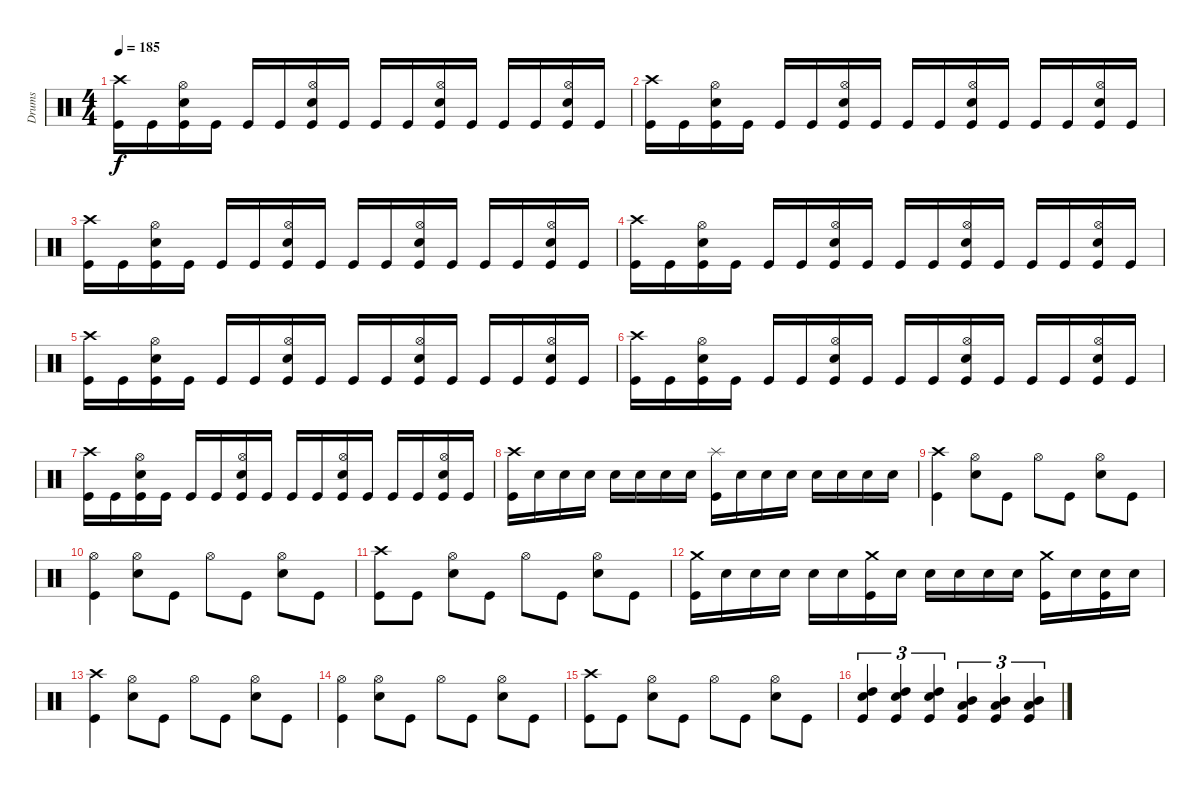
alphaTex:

\track ("Drums" "Drums") {instrument percussion}
\staff {score}
\articulation defaults
\ts (4 4)
\tempo 185
\clef neutral
\ks c
("Crash high (hit)" "Kick (hit)").16{dy f} "Kick (hit)".16 ("Hi-Hat (open)" "Electric Snare (hit)" "Kick (hit)").16 "Kick (hit)".16 "Kick (hit)".16 "Kick (hit)".16 ("Hi-Hat (open)" "Electric Snare (hit)" "Kick (hit)").16 "Kick (hit)".16 "Kick (hit)".16 "Kick (hit)".16 ("Hi-Hat (open)" "Electric Snare (hit)" "Kick (hit)").16 "Kick (hit)".16 "Kick (hit)".16 "Kick (hit)".16 ("Hi-Hat (open)" "Electric Snare (hit)" "Kick (hit)").16 "Kick (hit)".16 |
("Crash high (hit)" "Kick (hit)").16 "Kick (hit)".16 ("Hi-Hat (open)" "Electric Snare (hit)" "Kick (hit)").16 "Kick (hit)".16 "Kick (hit)".16 "Kick (hit)".16 ("Hi-Hat (open)" "Electric Snare (hit)" "Kick (hit)").16 "Kick (hit)".16 "Kick (hit)".16 "Kick (hit)".16 ("Hi-Hat (open)" "Electric Snare (hit)" "Kick (hit)").16 "Kick (hit)".16 "Kick (hit)".16 "Kick (hit)".16 ("Hi-Hat (open)" "Electric Snare (hit)" "Kick (hit)").16 "Kick (hit)".16 |
("Crash high (hit)" "Kick (hit)").16 "Kick (hit)".16 ("Hi-Hat (open)" "Electric Snare (hit)" "Kick (hit)").16 "Kick (hit)".16 "Kick (hit)".16 "Kick (hit)".16 ("Hi-Hat (open)" "Electric Snare (hit)" "Kick (hit)").16 "Kick (hit)".16 "Kick (hit)".16 "Kick (hit)".16 ("Hi-Hat (open)" "Electric Snare (hit)" "Kick (hit)").16 "Kick (hit)".16 "Kick (hit)".16 "Kick (hit)".16 ("Hi-Hat (open)" "Electric Snare (hit)" "Kick (hit)").16 "Kick (hit)".16 |
("Crash high (hit)" "Kick (hit)").16 "Kick (hit)".16 ("Hi-Hat (open)" "Electric Snare (hit)" "Kick (hit)").16 "Kick (hit)".16 "Kick (hit)".16 "Kick (hit)".16 ("Hi-Hat (open)" "Electric Snare (hit)" "Kick (hit)").16 "Kick (hit)".16 "Kick (hit)".16 "Kick (hit)".16 ("Hi-Hat (open)" "Electric Snare (hit)" "Kick (hit)").16 "Kick (hit)".16 "Kick (hit)".16 "Kick (hit)".16 ("Hi-Hat (open)" "Electric Snare (hit)" "Kick (hit)").16 "Kick (hit)".16 |
("Crash high (hit)" "Kick (hit)").16 "Kick (hit)".16 ("Hi-Hat (open)" "Electric Snare (hit)" "Kick (hit)").16 "Kick (hit)".16 "Kick (hit)".16 "Kick (hit)".16 ("Hi-Hat (open)" "Electric Snare (hit)" "Kick (hit)").16 "Kick (hit)".16 "Kick (hit)".16 "Kick (hit)".16 ("Hi-Hat (open)" "Electric Snare (hit)" "Kick (hit)").16 "Kick (hit)".16 "Kick (hit)".16 "Kick (hit)".16 ("Hi-Hat (open)" "Electric Snare (hit)" "Kick (hit)").16 "Kick (hit)".16 |
("Crash high (hit)" "Kick (hit)").16 "Kick (hit)".16 ("Hi-Hat (open)" "Electric Snare (hit)" "Kick (hit)").16 "Kick (hit)".16 "Kick (hit)".16 "Kick (hit)".16 ("Hi-Hat (open)" "Electric Snare (hit)" "Kick (hit)").16 "Kick (hit)".16 "Kick (hit)".16 "Kick (hit)".16 ("Hi-Hat (open)" "Electric Snare (hit)" "Kick (hit)").16 "Kick (hit)".16 "Kick (hit)".16 "Kick (hit)".16 ("Hi-Hat (open)" "Electric Snare (hit)" "Kick (hit)").16 "Kick (hit)".16 |
("Crash high (hit)" "Kick (hit)").16 "Kick (hit)".16 ("Hi-Hat (open)" "Electric Snare (hit)" "Kick (hit)").16 "Kick (hit)".16 "Kick (hit)".16 "Kick (hit)".16 ("Hi-Hat (open)" "Electric Snare (hit)" "Kick (hit)").16 "Kick (hit)".16 "Kick (hit)".16 "Kick (hit)".16 ("Hi-Hat (open)" "Electric Snare (hit)" "Kick (hit)").16 "Kick (hit)".16 "Kick (hit)".16 "Kick (hit)".16 ("Hi-Hat (open)" "Electric Snare (hit)" "Kick (hit)").16 "Kick (hit)".16 |
("Crash high (hit)" "Kick (hit)").16 "Electric Snare (hit)".16 "Electric Snare (hit)".16 "Electric Snare (hit)".16 "Electric Snare (hit)".16 "Electric Snare (hit)".16 "Electric Snare (hit)".16 "Electric Snare (hit)".16 ("Splash (hit)" "Kick (hit)").16 "Electric Snare (hit)".16 "Electric Snare (hit)".16 "Electric Snare (hit)".16 "Electric Snare (hit)".16 "Electric Snare (hit)".16 "Electric Snare (hit)".16 "Electric Snare (hit)".16 |
("Crash high (hit)" "Kick (hit)").4 ("Hi-Hat (open)" "Electric Snare (hit)").8 "Kick (hit)".8 "Hi-Hat (open)".8 "Kick (hit)".8 ("Hi-Hat (open)" "Electric Snare (hit)").8 "Kick (hit)".8 |
("Hi-Hat (open)" "Kick (hit)").4 ("Hi-Hat (open)" "Electric Snare (hit)").8 "Kick (hit)".8 "Hi-Hat (open)".8 "Kick (hit)".8 ("Hi-Hat (open)" "Electric Snare (hit)").8 "Kick (hit)".8 |
("Crash high (hit)" "Kick (hit)").8 "Kick (hit)".8 ("Hi-Hat (open)" "Electric Snare (hit)").8 "Kick (hit)".8 "Hi-Hat (open)".8 "Kick (hit)".8 ("Hi-Hat (open)" "Electric Snare (hit)").8 "Kick (hit)".8 |
("Crash medium (hit)" "Kick (hit)").16 "Electric Snare (hit)".16 "Electric Snare (hit)".16 "Electric Snare (hit)".16 "Electric Snare (hit)".16 "Electric Snare (hit)".16 ("Crash medium (hit)" "Kick (hit)").16 "Electric Snare (hit)".16 "Electric Snare (hit)".16 "Electric Snare (hit)".16 "Electric Snare (hit)".16 "Electric Snare (hit)".16 ("Crash medium (hit)" "Kick (hit)").16 "Electric Snare (hit)".16 ("Electric Snare (hit)" "Kick (hit)").16 "Electric Snare (hit)".16 |
("Crash high (hit)" "Kick (hit)").4 ("Hi-Hat (open)" "Electric Snare (hit)").8 "Kick (hit)".8 "Hi-Hat (open)".8 "Kick (hit)".8 ("Hi-Hat (open)" "Electric Snare (hit)").8 "Kick (hit)".8 |
("Hi-Hat (open)" "Kick (hit)").4 ("Hi-Hat (open)" "Electric Snare (hit)").8 "Kick (hit)".8 "Hi-Hat (open)".8 "Kick (hit)".8 ("Hi-Hat (open)" "Electric Snare (hit)").8 "Kick (hit)".8 |
("Crash high (hit)" "Kick (hit)").8 "Kick (hit)".8 ("Hi-Hat (open)" "Electric Snare (hit)").8 "Kick (hit)".8 "Hi-Hat (open)".8 "Kick (hit)".8 ("Hi-Hat (open)" "Electric Snare (hit)").8 "Kick (hit)".8 |
("High Tom (hit)" "Electric Snare (hit)" "Kick (hit)").4{tu (3 2)} ("High Tom (hit)" "Electric Snare (hit)" "Kick (hit)").4{tu (3 2)} ("High Tom (hit)" "Electric Snare (hit)" "Kick (hit)").4{tu (3 2)} ("Mid Tom (hit)" "Low Tom (hit)" "Kick (hit)").4{tu (3 2)} ("Mid Tom (hit)" "Low Tom (hit)" "Kick (hit)").4{tu (3 2)} ("Mid Tom (hit)" "Low Tom (hit)" "Kick (hit)").4{tu (3 2)}
